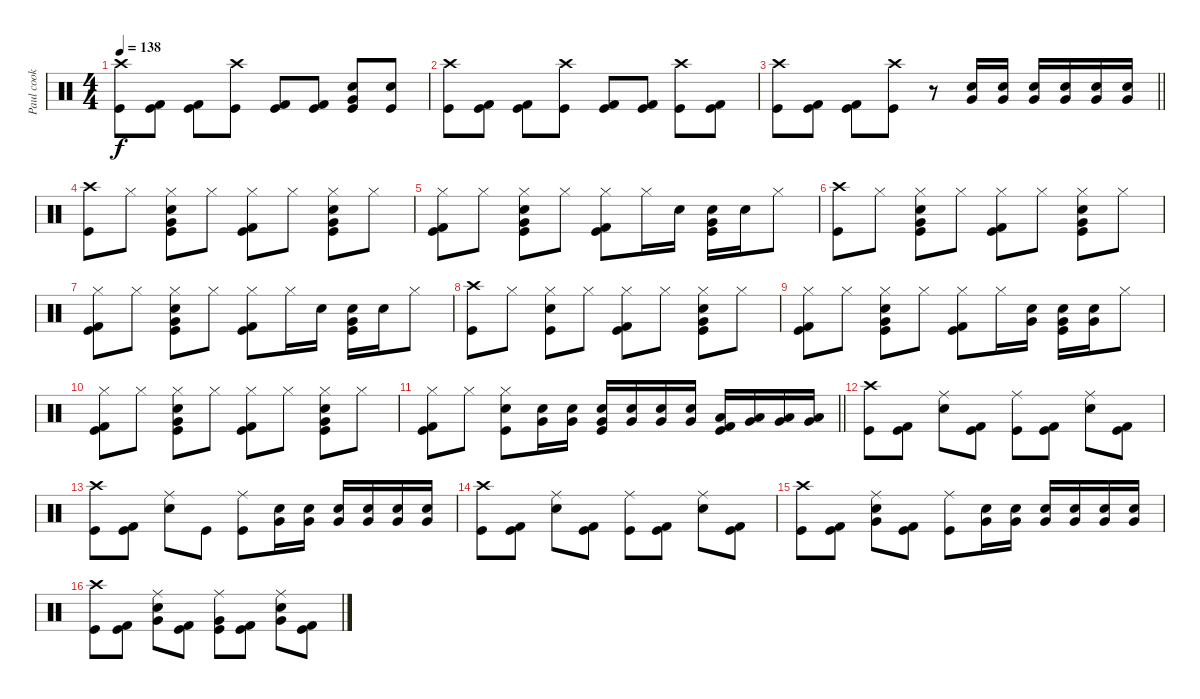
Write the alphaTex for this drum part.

\track ("Paul cook" "Paul cook") {instrument percussion}
\staff {score}
\articulation defaults
\ts (4 4)
\tempo 138
\clef neutral
\ks c
("Crash high (hit)" "Kick (hit)").8{dy f} ("Kick (hit) 2" "Kick (hit)").8 ("Kick (hit) 2" "Kick (hit)").8 ("Crash high (hit)" "Kick (hit)").8 ("Kick (hit) 2" "Kick (hit)").8 ("Kick (hit) 2" "Kick (hit)").8 ("Very Low Tom (hit)" "Snare (hit) 2" "Kick (hit)").8 ("Snare (hit)" "Kick (hit)").8 |
("Crash high (hit)" "Kick (hit)").8 ("Kick (hit) 2" "Kick (hit)").8 ("Kick (hit) 2" "Kick (hit)").8 ("Crash high (hit)" "Kick (hit)").8 ("Kick (hit) 2" "Kick (hit)").8 ("Kick (hit) 2" "Kick (hit)").8 ("Crash high (hit)" "Kick (hit)").8 ("Kick (hit) 2" "Kick (hit)").8 |
\barLineRight lightlight
("Crash high (hit)" "Kick (hit)").8 ("Kick (hit) 2" "Kick (hit)").8 ("Kick (hit) 2" "Kick (hit)").8 ("Crash high (hit)" "Kick (hit)").8 r.8 ("Very Low Tom (hit)" "Snare (hit) 2").16 ("Very Low Tom (hit)" "Snare (hit) 2").16 ("Very Low Tom (hit)" "Snare (hit) 2").16 ("Very Low Tom (hit)" "Snare (hit) 2").16 ("Very Low Tom (hit)" "Snare (hit) 2").16 ("Very Low Tom (hit)" "Snare (hit) 2").16 |
("Crash high (hit)" "Kick (hit)").8 "Hi-Hat (closed)".8 ("Very Low Tom (hit)" "Hi-Hat (closed)" "Snare (hit) 2" "Kick (hit)").8 "Hi-Hat (closed)".8 ("Kick (hit) 2" "Hi-Hat (closed)" "Kick (hit)").8 "Hi-Hat (closed)".8 ("Very Low Tom (hit)" "Hi-Hat (closed)" "Snare (hit) 2" "Kick (hit)").8 "Hi-Hat (closed)".8 |
("Kick (hit) 2" "Hi-Hat (closed)" "Kick (hit)").8 "Hi-Hat (closed)".8 ("Very Low Tom (hit)" "Hi-Hat (closed)" "Snare (hit) 2" "Kick (hit)").8 "Hi-Hat (closed)".8 ("Kick (hit) 2" "Hi-Hat (closed)" "Kick (hit)").8 "Hi-Hat (closed)".16 "Snare (hit) 2".16 ("Very Low Tom (hit)" "Snare (hit) 2" "Kick (hit)").16 "Snare (hit) 2".16 "Hi-Hat (closed)".8 |
("Crash high (hit)" "Kick (hit)").8 "Hi-Hat (closed)".8 ("Very Low Tom (hit)" "Hi-Hat (closed)" "Snare (hit) 2" "Kick (hit)").8 "Hi-Hat (closed)".8 ("Kick (hit) 2" "Hi-Hat (closed)" "Kick (hit)").8 "Hi-Hat (closed)".8 ("Very Low Tom (hit)" "Hi-Hat (closed)" "Snare (hit) 2" "Kick (hit)").8 "Hi-Hat (closed)".8 |
("Kick (hit) 2" "Hi-Hat (closed)" "Kick (hit)").8 "Hi-Hat (closed)".8 ("Very Low Tom (hit)" "Hi-Hat (closed)" "Snare (hit) 2" "Kick (hit)").8 "Hi-Hat (closed)".8 ("Kick (hit) 2" "Hi-Hat (closed)" "Kick (hit)").8 "Hi-Hat (closed)".16 "Snare (hit) 2".16 ("Very Low Tom (hit)" "Snare (hit) 2" "Kick (hit)").16 "Snare (hit) 2".16 "Hi-Hat (closed)".8 |
("Crash high (hit)" "Kick (hit)").8 "Hi-Hat (closed)".8 ("Hi-Hat (closed)" "Snare (hit) 2" "Kick (hit)").8 "Hi-Hat (closed)".8 ("Kick (hit) 2" "Hi-Hat (closed)" "Kick (hit)").8 "Hi-Hat (closed)".8 ("Very Low Tom (hit)" "Hi-Hat (closed)" "Snare (hit) 2" "Kick (hit)").8 "Hi-Hat (closed)".8 |
("Kick (hit) 2" "Hi-Hat (closed)" "Kick (hit)").8 "Hi-Hat (closed)".8 ("Very Low Tom (hit)" "Hi-Hat (closed)" "Snare (hit) 2" "Kick (hit)").8 "Hi-Hat (closed)".8 ("Kick (hit) 2" "Hi-Hat (closed)" "Kick (hit)").8 "Hi-Hat (closed)".16 ("Very Low Tom (hit)" "Snare (hit) 2").16 ("Very Low Tom (hit)" "Snare (hit) 2" "Kick (hit)").16 ("Very Low Tom (hit)" "Snare (hit) 2").16 "Hi-Hat (closed)".8 |
("Kick (hit) 2" "Hi-Hat (closed)" "Kick (hit)").8 "Hi-Hat (closed)".8 ("Very Low Tom (hit)" "Hi-Hat (closed)" "Snare (hit) 2" "Kick (hit)").8 "Hi-Hat (closed)".8 ("Kick (hit) 2" "Hi-Hat (closed)" "Kick (hit)").8 "Hi-Hat (closed)".8 ("Very Low Tom (hit)" "Hi-Hat (closed)" "Snare (hit) 2" "Kick (hit)").8 "Hi-Hat (closed)".8 |
\barLineRight lightlight
("Kick (hit) 2" "Hi-Hat (closed)" "Kick (hit)").8 "Hi-Hat (closed)".8 ("Hi-Hat (closed)" "Snare (hit) 2" "Kick (hit)").8 ("Very Low Tom (hit)" "Snare (hit) 2").16 ("Very Low Tom (hit)" "Snare (hit) 2").16 ("Very Low Tom (hit)" "Snare (hit) 2" "Kick (hit)").16 ("Very Low Tom (hit)" "Snare (hit) 2").16 ("Very Low Tom (hit)" "Snare (hit) 2").16 ("Very Low Tom (hit)" "Snare (hit) 2").16 ("Kick (hit) 2" "Low Tom (hit)" "Kick (hit)").16 ("Very Low Tom (hit)" "Low Tom (hit)").16 ("Very Low Tom (hit)" "Low Tom (hit)").16 ("Very Low Tom (hit)" "Low Tom (hit)").16 |
("Crash high (hit)" "Kick (hit)").8 ("Kick (hit) 2" "Kick (hit)").8 ("Ride (middle)" "Snare (hit) 2").8 ("Kick (hit) 2" "Kick (hit)").8 ("Ride (middle)" "Kick (hit)").8 ("Kick (hit) 2" "Kick (hit)").8 ("Ride (middle)" "Snare (hit) 2").8 ("Kick (hit) 2" "Kick (hit)").8 |
("Crash high (hit)" "Kick (hit)").8 ("Kick (hit) 2" "Kick (hit)").8 ("Ride (middle)" "Snare (hit) 2").8 "Kick (hit)".8 ("Ride (middle)" "Kick (hit)").8 ("Very Low Tom (hit)" "Snare (hit) 2").16 ("Very Low Tom (hit)" "Snare (hit) 2").16 ("Very Low Tom (hit)" "Snare (hit) 2").16 ("Very Low Tom (hit)" "Snare (hit) 2").16 ("Very Low Tom (hit)" "Snare (hit) 2").16 ("Very Low Tom (hit)" "Snare (hit) 2").16 |
("Crash high (hit)" "Kick (hit)").8 ("Kick (hit) 2" "Kick (hit)").8 ("Ride (middle)" "Snare (hit) 2").8 ("Kick (hit) 2" "Kick (hit)").8 ("Ride (middle)" "Kick (hit)").8 ("Kick (hit) 2" "Kick (hit)").8 ("Ride (middle)" "Snare (hit) 2").8 ("Kick (hit) 2" "Kick (hit)").8 |
("Crash high (hit)" "Kick (hit)").8 ("Kick (hit) 2" "Kick (hit)").8 ("Very Low Tom (hit)" "Ride (middle)" "Snare (hit) 2").8 ("Kick (hit) 2" "Kick (hit)").8 ("Ride (middle)" "Kick (hit)").8 ("Very Low Tom (hit)" "Snare (hit) 2").16 ("Very Low Tom (hit)" "Snare (hit) 2").16 ("Very Low Tom (hit)" "Snare (hit) 2").16 ("Very Low Tom (hit)" "Snare (hit) 2").16 ("Very Low Tom (hit)" "Snare (hit) 2").16 ("Very Low Tom (hit)" "Snare (hit) 2").16 |
("Crash high (hit)" "Kick (hit)").8 ("Kick (hit) 2" "Kick (hit)").8 ("Very Low Tom (hit)" "Ride (middle)" "Snare (hit) 2").8 ("Kick (hit) 2" "Kick (hit)").8 ("Very Low Tom (hit)" "Ride (middle)" "Kick (hit)").8 ("Kick (hit) 2" "Kick (hit)").8 ("Very Low Tom (hit)" "Ride (middle)" "Snare (hit) 2").8 ("Kick (hit) 2" "Kick (hit)").8
